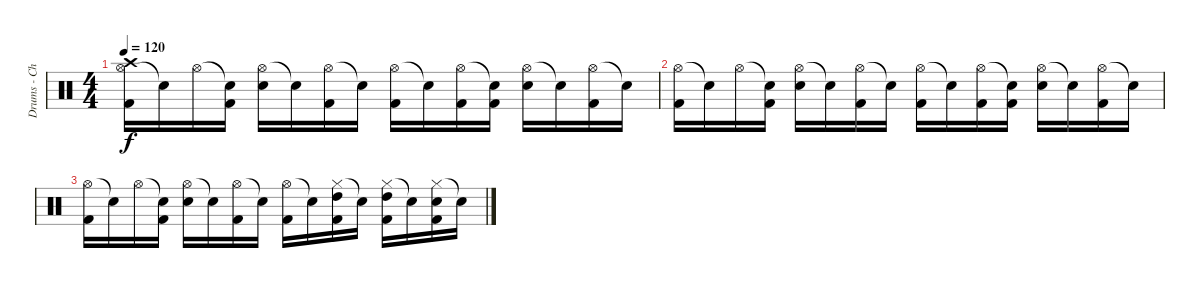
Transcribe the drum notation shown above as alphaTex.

\track ("Drums - Chad" "Drums - Ch") {instrument percussion}
\staff {score}
\articulation defaults
\ts (4 4)
\tempo 120
\clef neutral
\ks c
("Hi-Hat (open)" "Kick (hit) 2" "Crash high (hit)").16{dy f} "Snare (hit)"{t}.16 "Hi-Hat (open)".16 ("Snare (hit)"{t} "Kick (hit) 2").16 ("Hi-Hat (open)" "Electric Snare (hit)").16 "Snare (hit)"{t}.16 ("Hi-Hat (open)" "Kick (hit) 2").16 "Snare (hit)"{t}.16 ("Hi-Hat (open)" "Kick (hit) 2").16 "Snare (hit)"{t}.16 ("Hi-Hat (open)" "Kick (hit) 2").16 ("Snare (hit)"{t} "Kick (hit) 2").16 ("Hi-Hat (open)" "Electric Snare (hit)").16 "Snare (hit)"{t}.16 ("Hi-Hat (open)" "Kick (hit) 2").16 "Snare (hit)"{t}.16 |
("Hi-Hat (open)" "Kick (hit) 2").16 "Snare (hit)"{t}.16 "Hi-Hat (open)".16 ("Snare (hit)"{t} "Kick (hit) 2").16 ("Hi-Hat (open)" "Electric Snare (hit)").16 "Snare (hit)"{t}.16 ("Hi-Hat (open)" "Kick (hit) 2").16 "Snare (hit)"{t}.16 ("Hi-Hat (open)" "Kick (hit) 2").16 "Snare (hit)"{t}.16 ("Hi-Hat (open)" "Kick (hit) 2").16 ("Snare (hit)"{t} "Kick (hit) 2").16 ("Hi-Hat (open)" "Electric Snare (hit)").16 "Snare (hit)"{t}.16 ("Hi-Hat (open)" "Kick (hit) 2").16 "Snare (hit)"{t}.16 |
("Hi-Hat (open)" "Kick (hit) 2").16 "Snare (hit)"{t}.16 "Hi-Hat (open)".16 ("Snare (hit)"{t} "Kick (hit) 2").16 ("Hi-Hat (open)" "Electric Snare (hit)").16 "Snare (hit)"{t}.16 ("Hi-Hat (open)" "Kick (hit) 2").16 "Snare (hit)"{t}.16 ("Hi-Hat (open)" "Kick (hit) 2").16 "Snare (hit)"{t}.16 ("Hi-Hat (closed)" "Kick (hit) 2" "High Tom (hit)").16 "Snare (hit)"{t}.16 ("Hi-Hat (closed)" "Kick (hit) 2" "High Tom (hit)").16 "Snare (hit)"{t}.16 ("Hi-Hat (closed)" "Kick (hit) 2" "Electric Snare (hit)").16 "Snare (hit)"{t}.16
